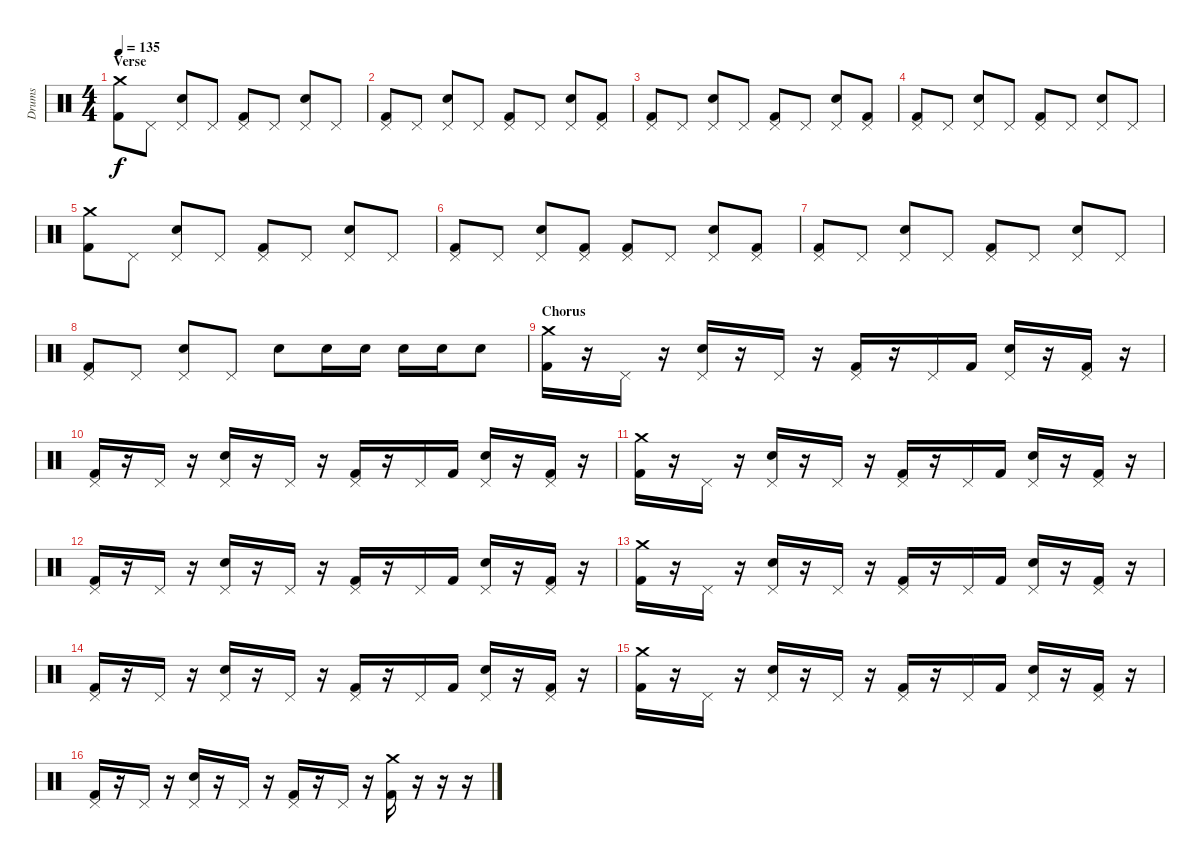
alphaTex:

\track ("Drums" "Drums") {instrument percussion}
\staff {score}
\articulation defaults
\ts (4 4)
\section ("" "Verse")
\tempo 135
\clef neutral
\ks c
("Crash medium (hit)" "Kick (hit) 2").8{dy f} "Pedal Hi-Hat (hit)".8 ("Pedal Hi-Hat (hit)" "Electric Snare (hit)").8 "Pedal Hi-Hat (hit)".8 ("Pedal Hi-Hat (hit)" "Kick (hit) 2").8 "Pedal Hi-Hat (hit)".8 ("Pedal Hi-Hat (hit)" "Electric Snare (hit)").8 "Pedal Hi-Hat (hit)".8 |
("Pedal Hi-Hat (hit)" "Kick (hit) 2").8 "Pedal Hi-Hat (hit)".8 ("Pedal Hi-Hat (hit)" "Electric Snare (hit)").8 "Pedal Hi-Hat (hit)".8 ("Pedal Hi-Hat (hit)" "Kick (hit) 2").8 "Pedal Hi-Hat (hit)".8 ("Pedal Hi-Hat (hit)" "Electric Snare (hit)").8 ("Pedal Hi-Hat (hit)" "Kick (hit) 2").8 |
("Pedal Hi-Hat (hit)" "Kick (hit) 2").8 "Pedal Hi-Hat (hit)".8 ("Pedal Hi-Hat (hit)" "Electric Snare (hit)").8 "Pedal Hi-Hat (hit)".8 ("Pedal Hi-Hat (hit)" "Kick (hit) 2").8 "Pedal Hi-Hat (hit)".8 ("Pedal Hi-Hat (hit)" "Electric Snare (hit)").8 ("Pedal Hi-Hat (hit)" "Kick (hit) 2").8 |
("Pedal Hi-Hat (hit)" "Kick (hit) 2").8 "Pedal Hi-Hat (hit)".8 ("Pedal Hi-Hat (hit)" "Electric Snare (hit)").8 "Pedal Hi-Hat (hit)".8 ("Pedal Hi-Hat (hit)" "Kick (hit) 2").8 "Pedal Hi-Hat (hit)".8 ("Pedal Hi-Hat (hit)" "Electric Snare (hit)").8 "Pedal Hi-Hat (hit)".8 |
("Crash medium (hit)" "Kick (hit) 2").8 "Pedal Hi-Hat (hit)".8 ("Pedal Hi-Hat (hit)" "Electric Snare (hit)").8 "Pedal Hi-Hat (hit)".8 ("Pedal Hi-Hat (hit)" "Kick (hit) 2").8 "Pedal Hi-Hat (hit)".8 ("Pedal Hi-Hat (hit)" "Electric Snare (hit)").8 "Pedal Hi-Hat (hit)".8 |
("Pedal Hi-Hat (hit)" "Kick (hit) 2").8 "Pedal Hi-Hat (hit)".8 ("Pedal Hi-Hat (hit)" "Electric Snare (hit)").8 ("Pedal Hi-Hat (hit)" "Kick (hit) 2").8 ("Pedal Hi-Hat (hit)" "Kick (hit) 2").8 "Pedal Hi-Hat (hit)".8 ("Pedal Hi-Hat (hit)" "Electric Snare (hit)").8 ("Pedal Hi-Hat (hit)" "Kick (hit) 2").8 |
("Pedal Hi-Hat (hit)" "Kick (hit) 2").8 "Pedal Hi-Hat (hit)".8 ("Pedal Hi-Hat (hit)" "Electric Snare (hit)").8 "Pedal Hi-Hat (hit)".8 ("Pedal Hi-Hat (hit)" "Kick (hit) 2").8 "Pedal Hi-Hat (hit)".8 ("Pedal Hi-Hat (hit)" "Electric Snare (hit)").8 "Pedal Hi-Hat (hit)".8 |
("Pedal Hi-Hat (hit)" "Kick (hit) 2").8 "Pedal Hi-Hat (hit)".8 ("Pedal Hi-Hat (hit)" "Electric Snare (hit)").8 "Pedal Hi-Hat (hit)".8 "Electric Snare (hit)".8 "Electric Snare (hit)".16 "Electric Snare (hit)".16 "Electric Snare (hit)".16 "Electric Snare (hit)".16 "Electric Snare (hit)".8 |
\section ("" "Chorus")
("Crash medium (hit)" "Kick (hit) 2").16 r.16 "Pedal Hi-Hat (hit)".16 r.16 ("Pedal Hi-Hat (hit)" "Electric Snare (hit)").16 r.16 "Pedal Hi-Hat (hit)".16 r.16 ("Pedal Hi-Hat (hit)" "Kick (hit) 2").16 r.16 "Pedal Hi-Hat (hit)".16 "Kick (hit) 2".16 ("Pedal Hi-Hat (hit)" "Electric Snare (hit)").16 r.16 ("Pedal Hi-Hat (hit)" "Kick (hit) 2").16 r.16 |
("Pedal Hi-Hat (hit)" "Kick (hit) 2").16 r.16 "Pedal Hi-Hat (hit)".16 r.16 ("Pedal Hi-Hat (hit)" "Electric Snare (hit)").16 r.16 "Pedal Hi-Hat (hit)".16 r.16 ("Pedal Hi-Hat (hit)" "Kick (hit) 2").16 r.16 "Pedal Hi-Hat (hit)".16 "Kick (hit) 2".16 ("Pedal Hi-Hat (hit)" "Electric Snare (hit)").16 r.16 ("Pedal Hi-Hat (hit)" "Kick (hit) 2").16 r.16 |
("Crash medium (hit)" "Kick (hit) 2").16 r.16 "Pedal Hi-Hat (hit)".16 r.16 ("Pedal Hi-Hat (hit)" "Electric Snare (hit)").16 r.16 "Pedal Hi-Hat (hit)".16 r.16 ("Pedal Hi-Hat (hit)" "Kick (hit) 2").16 r.16 "Pedal Hi-Hat (hit)".16 "Kick (hit) 2".16 ("Pedal Hi-Hat (hit)" "Electric Snare (hit)").16 r.16 ("Pedal Hi-Hat (hit)" "Kick (hit) 2").16 r.16 |
("Pedal Hi-Hat (hit)" "Kick (hit) 2").16 r.16 "Pedal Hi-Hat (hit)".16 r.16 ("Pedal Hi-Hat (hit)" "Electric Snare (hit)").16 r.16 "Pedal Hi-Hat (hit)".16 r.16 ("Pedal Hi-Hat (hit)" "Kick (hit) 2").16 r.16 "Pedal Hi-Hat (hit)".16 "Kick (hit) 2".16 ("Pedal Hi-Hat (hit)" "Electric Snare (hit)").16 r.16 ("Pedal Hi-Hat (hit)" "Kick (hit) 2").16 r.16 |
("Crash medium (hit)" "Kick (hit) 2").16 r.16 "Pedal Hi-Hat (hit)".16 r.16 ("Pedal Hi-Hat (hit)" "Electric Snare (hit)").16 r.16 "Pedal Hi-Hat (hit)".16 r.16 ("Pedal Hi-Hat (hit)" "Kick (hit) 2").16 r.16 "Pedal Hi-Hat (hit)".16 "Kick (hit) 2".16 ("Pedal Hi-Hat (hit)" "Electric Snare (hit)").16 r.16 ("Pedal Hi-Hat (hit)" "Kick (hit) 2").16 r.16 |
("Pedal Hi-Hat (hit)" "Kick (hit) 2").16 r.16 "Pedal Hi-Hat (hit)".16 r.16 ("Pedal Hi-Hat (hit)" "Electric Snare (hit)").16 r.16 "Pedal Hi-Hat (hit)".16 r.16 ("Pedal Hi-Hat (hit)" "Kick (hit) 2").16 r.16 "Pedal Hi-Hat (hit)".16 "Kick (hit) 2".16 ("Pedal Hi-Hat (hit)" "Electric Snare (hit)").16 r.16 ("Pedal Hi-Hat (hit)" "Kick (hit) 2").16 r.16 |
("Crash medium (hit)" "Kick (hit) 2").16 r.16 "Pedal Hi-Hat (hit)".16 r.16 ("Pedal Hi-Hat (hit)" "Electric Snare (hit)").16 r.16 "Pedal Hi-Hat (hit)".16 r.16 ("Pedal Hi-Hat (hit)" "Kick (hit) 2").16 r.16 "Pedal Hi-Hat (hit)".16 "Kick (hit) 2".16 ("Pedal Hi-Hat (hit)" "Electric Snare (hit)").16 r.16 ("Pedal Hi-Hat (hit)" "Kick (hit) 2").16 r.16 |
("Pedal Hi-Hat (hit)" "Kick (hit) 2").16 r.16 "Pedal Hi-Hat (hit)".16 r.16 ("Pedal Hi-Hat (hit)" "Electric Snare (hit)").16 r.16 "Pedal Hi-Hat (hit)".16 r.16 ("Pedal Hi-Hat (hit)" "Kick (hit) 2").16 r.16 "Pedal Hi-Hat (hit)".16 r.16 ("Crash medium (hit)" "Kick (hit) 2").16 r.16 r.16 r.16
